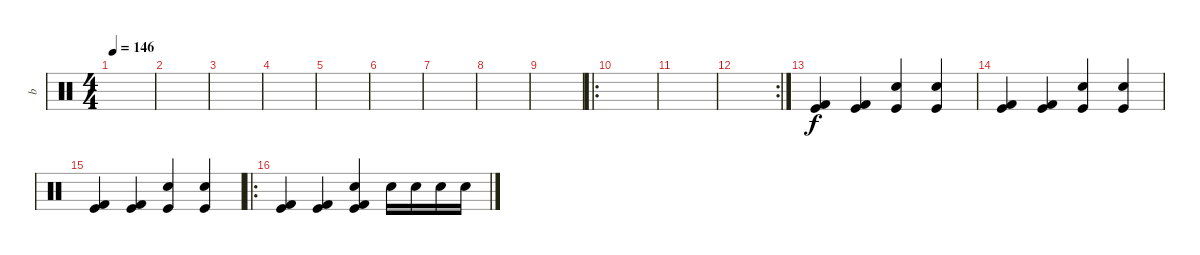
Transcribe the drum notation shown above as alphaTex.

\track ("b" "b") {instrument percussion}
\staff {score}
\articulation defaults
\ts (4 4)
\tempo 146
\clef neutral
\ks c
|
|
|
|
|
|
|
|
|
\ro
|
|
\rc 2
|
("Kick (hit) 2" "Kick (hit)").4 ("Kick (hit) 2" "Kick (hit)").4 ("Electric Snare (hit)" "Kick (hit)").4 ("Electric Snare (hit)" "Kick (hit)").4 |
("Kick (hit) 2" "Kick (hit)").4 ("Kick (hit) 2" "Kick (hit)").4 ("Electric Snare (hit)" "Kick (hit)").4 ("Electric Snare (hit)" "Kick (hit)").4 |
("Kick (hit) 2" "Kick (hit)").4 ("Kick (hit) 2" "Kick (hit)").4 ("Electric Snare (hit)" "Kick (hit)").4 ("Electric Snare (hit)" "Kick (hit)").4 |
\ro
("Kick (hit) 2" "Kick (hit)").4 ("Kick (hit) 2" "Kick (hit)").4 ("Electric Snare (hit)" "Kick (hit) 2" "Kick (hit)").4 "Electric Snare (hit)".16 "Electric Snare (hit)".16 "Electric Snare (hit)".16 "Electric Snare (hit)".16
